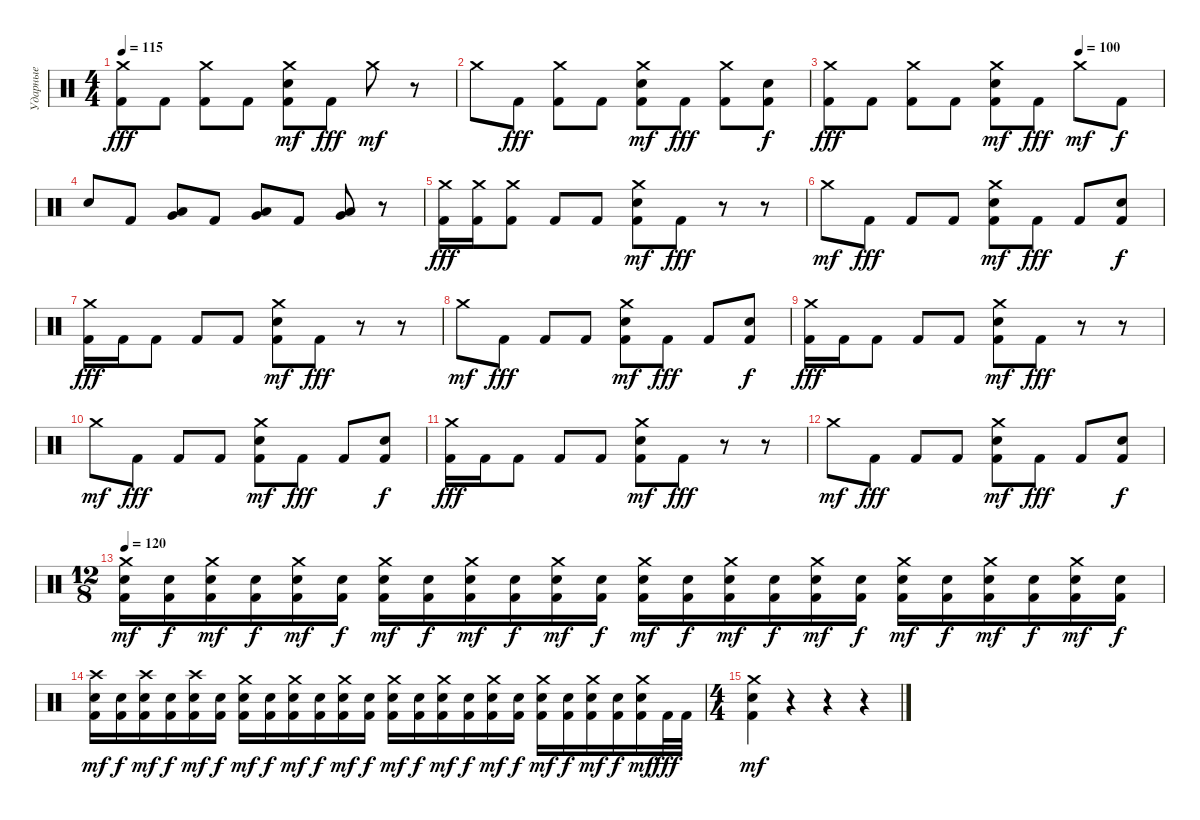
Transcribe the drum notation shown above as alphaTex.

\track ("Ударные" "Ударные") {instrument percussion}
\staff {score}
\articulation defaults
\ts (4 4)
\tempo 115
\clef neutral
\ks c
("Crash medium (hit)" "Kick (hit) 2").8{dy fff} "Kick (hit) 2".8 ("Crash medium (hit)" "Kick (hit) 2").8 "Kick (hit) 2".8 ("Crash medium (hit)" "Electric Snare (hit)" "Kick (hit) 2").8{dy mf} "Kick (hit) 2".8{dy fff} "Crash medium (hit)".8{dy mf} r.8 |
"Crash medium (hit)".8 "Kick (hit) 2".8{dy fff} ("Crash medium (hit)" "Kick (hit) 2").8 "Kick (hit) 2".8 ("Crash medium (hit)" "Electric Snare (hit)" "Kick (hit) 2").8{dy mf} "Kick (hit) 2".8{dy fff} ("Crash medium (hit)" "Kick (hit) 2").8 ("Electric Snare (hit)" "Kick (hit) 2").8{dy f} |
\tempo (100 0.75)
("Crash medium (hit)" "Kick (hit) 2").8{dy fff} "Kick (hit) 2".8 ("Crash medium (hit)" "Kick (hit) 2").8 "Kick (hit) 2".8 ("Crash medium (hit)" "Electric Snare (hit)" "Kick (hit) 2").8{dy mf} "Kick (hit) 2".8{dy fff} "Crash medium (hit)".8{dy mf} "Kick (hit) 2".8{dy f} |
"Electric Snare (hit)".8 "Kick (hit) 2".8 ("Very Low Tom (hit)" "Low Floor Tom (hit)").8 "Kick (hit) 2".8 ("Low Tom (hit)" "Very Low Tom (hit)").8 "Kick (hit) 2".8 ("Very Low Tom (hit)" "Low Floor Tom (hit)").8 r.8 |
("Crash medium (hit)" "Kick (hit) 2").16{dy fff} ("Crash medium (hit)" "Kick (hit) 2").16 ("Crash medium (hit)" "Kick (hit) 2").8 "Kick (hit) 2".8 "Kick (hit) 2".8 ("Crash medium (hit)" "Electric Snare (hit)" "Kick (hit) 2").8{dy mf} "Kick (hit) 2".8{dy fff} r.8 r.8 |
"Crash medium (hit)".8{dy mf} "Kick (hit) 2".8{dy fff} "Kick (hit) 2".8 "Kick (hit) 2".8 ("Crash medium (hit)" "Electric Snare (hit)" "Kick (hit) 2").8{dy mf} "Kick (hit) 2".8{dy fff} "Kick (hit) 2".8 ("Electric Snare (hit)" "Kick (hit) 2").8{dy f} |
("Crash medium (hit)" "Kick (hit) 2").16{dy fff} "Kick (hit) 2".16 "Kick (hit) 2".8 "Kick (hit) 2".8 "Kick (hit) 2".8 ("Crash medium (hit)" "Electric Snare (hit)" "Kick (hit) 2").8{dy mf} "Kick (hit) 2".8{dy fff} r.8 r.8 |
"Crash medium (hit)".8{dy mf} "Kick (hit) 2".8{dy fff} "Kick (hit) 2".8 "Kick (hit) 2".8 ("Crash medium (hit)" "Electric Snare (hit)" "Kick (hit) 2").8{dy mf} "Kick (hit) 2".8{dy fff} "Kick (hit) 2".8 ("Electric Snare (hit)" "Kick (hit) 2").8{dy f} |
("Crash medium (hit)" "Kick (hit) 2").16{dy fff} "Kick (hit) 2".16 "Kick (hit) 2".8 "Kick (hit) 2".8 "Kick (hit) 2".8 ("Crash medium (hit)" "Electric Snare (hit)" "Kick (hit) 2").8{dy mf} "Kick (hit) 2".8{dy fff} r.8 r.8 |
"Crash medium (hit)".8{dy mf} "Kick (hit) 2".8{dy fff} "Kick (hit) 2".8 "Kick (hit) 2".8 ("Crash medium (hit)" "Electric Snare (hit)" "Kick (hit) 2").8{dy mf} "Kick (hit) 2".8{dy fff} "Kick (hit) 2".8 ("Electric Snare (hit)" "Kick (hit) 2").8{dy f} |
("Crash medium (hit)" "Kick (hit) 2").16{dy fff} "Kick (hit) 2".16 "Kick (hit) 2".8 "Kick (hit) 2".8 "Kick (hit) 2".8 ("Crash medium (hit)" "Electric Snare (hit)" "Kick (hit) 2").8{dy mf} "Kick (hit) 2".8{dy fff} r.8 r.8 |
"Crash medium (hit)".8{dy mf} "Kick (hit) 2".8{dy fff} "Kick (hit) 2".8 "Kick (hit) 2".8 ("Crash medium (hit)" "Electric Snare (hit)" "Kick (hit) 2").8{dy mf} "Kick (hit) 2".8{dy fff} "Kick (hit) 2".8 ("Electric Snare (hit)" "Kick (hit) 2").8{dy f} |
\ts (12 8)
\tempo 120
("Crash medium (hit)" "Electric Snare (hit)" "Kick (hit) 2").16{dy mf} ("Electric Snare (hit)" "Kick (hit) 2").16{dy f} ("Crash medium (hit)" "Electric Snare (hit)" "Kick (hit) 2").16{dy mf} ("Electric Snare (hit)" "Kick (hit) 2").16{dy f} ("Crash medium (hit)" "Electric Snare (hit)" "Kick (hit) 2").16{dy mf} ("Electric Snare (hit)" "Kick (hit) 2").16{dy f} ("Crash medium (hit)" "Electric Snare (hit)" "Kick (hit) 2").16{dy mf} ("Electric Snare (hit)" "Kick (hit) 2").16{dy f} ("Crash medium (hit)" "Electric Snare (hit)" "Kick (hit) 2").16{dy mf} ("Electric Snare (hit)" "Kick (hit) 2").16{dy f} ("Crash medium (hit)" "Electric Snare (hit)" "Kick (hit) 2").16{dy mf} ("Electric Snare (hit)" "Kick (hit) 2").16{dy f} ("Crash medium (hit)" "Electric Snare (hit)" "Kick (hit) 2").16{dy mf} ("Electric Snare (hit)" "Kick (hit) 2").16{dy f} ("Crash medium (hit)" "Electric Snare (hit)" "Kick (hit) 2").16{dy mf} ("Electric Snare (hit)" "Kick (hit) 2").16{dy f} ("Crash medium (hit)" "Electric Snare (hit)" "Kick (hit) 2").16{dy mf} ("Electric Snare (hit)" "Kick (hit) 2").16{dy f} ("Crash medium (hit)" "Electric Snare (hit)" "Kick (hit) 2").16{dy mf} ("Electric Snare (hit)" "Kick (hit) 2").16{dy f} ("Crash medium (hit)" "Electric Snare (hit)" "Kick (hit) 2").16{dy mf} ("Electric Snare (hit)" "Kick (hit) 2").16{dy f} ("Crash medium (hit)" "Electric Snare (hit)" "Kick (hit) 2").16{dy mf} ("Electric Snare (hit)" "Kick (hit) 2").16{dy f} |
("Crash high (hit)" "Electric Snare (hit)" "Kick (hit) 2").16{dy mf} ("Electric Snare (hit)" "Kick (hit) 2").16{dy f} ("Crash high (hit)" "Electric Snare (hit)" "Kick (hit) 2").16{dy mf} ("Electric Snare (hit)" "Kick (hit) 2").16{dy f} ("Crash high (hit)" "Electric Snare (hit)" "Kick (hit) 2").16{dy mf} ("Electric Snare (hit)" "Kick (hit) 2").16{dy f} ("Crash medium (hit)" "Electric Snare (hit)" "Kick (hit) 2").16{dy mf} ("Electric Snare (hit)" "Kick (hit) 2").16{dy f} ("Crash medium (hit)" "Electric Snare (hit)" "Kick (hit) 2").16{dy mf} ("Electric Snare (hit)" "Kick (hit) 2").16{dy f} ("Crash medium (hit)" "Electric Snare (hit)" "Kick (hit) 2").16{dy mf} ("Electric Snare (hit)" "Kick (hit) 2").16{dy f} ("Crash medium (hit)" "Electric Snare (hit)" "Kick (hit) 2").16{dy mf} ("Electric Snare (hit)" "Kick (hit) 2").16{dy f} ("Crash medium (hit)" "Electric Snare (hit)" "Kick (hit) 2").16{dy mf} ("Electric Snare (hit)" "Kick (hit) 2").16{dy f} ("Crash medium (hit)" "Electric Snare (hit)" "Kick (hit) 2").16{dy mf} ("Electric Snare (hit)" "Kick (hit) 2").16{dy f} ("Crash medium (hit)" "Electric Snare (hit)" "Kick (hit) 2").16{dy mf} ("Electric Snare (hit)" "Kick (hit) 2").16{dy f} ("Crash medium (hit)" "Electric Snare (hit)" "Kick (hit) 2").16{dy mf} ("Electric Snare (hit)" "Kick (hit) 2").16{dy f} ("Crash medium (hit)" "Electric Snare (hit)" "Kick (hit) 2").16{dy mf} "Kick (hit) 2".32{dy fff} "Kick (hit) 2".32 |
\ts (4 4)
("Crash medium (hit)" "Electric Snare (hit)" "Kick (hit) 2").4{dy mf} r.4 r.4 r.4
